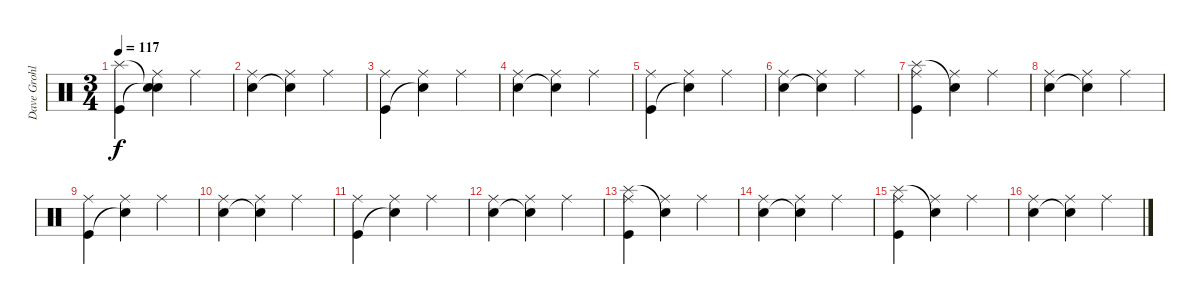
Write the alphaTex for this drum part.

\track ("Dave Grohl-Drums" "Dave Grohl") {instrument percussion}
\staff {score}
\articulation defaults
\ts (3 4)
\tempo 117
\clef neutral
\ks c
("Splash (hit)" "Kick (hit)").4{dy f} ("Snare (hit)"{t} "Snare (hit)"{t} "Ride (middle)").4 "Ride (middle)".4 |
("Electric Snare (hit)" "Ride (middle)").4 ("Snare (hit)"{t} "Ride (middle)").4 "Ride (middle)".4 |
("Kick (hit)" "Ride (middle)").4 ("Snare (hit)"{t} "Ride (middle)").4 "Ride (middle)".4 |
("Electric Snare (hit)" "Ride (middle)").4 ("Snare (hit)"{t} "Ride (middle)").4 "Ride (middle)".4 |
("Kick (hit)" "Ride (middle)").4 ("Snare (hit)"{t} "Ride (middle)").4 "Ride (middle)".4 |
("Electric Snare (hit)" "Ride (middle)").4 ("Snare (hit)"{t} "Ride (middle)").4 "Ride (middle)".4 |
("Splash (hit)" "Kick (hit)" "Ride (middle)").4 ("Snare (hit)"{t} "Ride (middle)").4 "Ride (middle)".4 |
("Electric Snare (hit)" "Ride (middle)").4 ("Snare (hit)"{t} "Ride (middle)").4 "Ride (middle)".4 |
("Kick (hit)" "Ride (middle)").4 ("Snare (hit)"{t} "Ride (middle)").4 "Ride (middle)".4 |
("Electric Snare (hit)" "Ride (middle)").4 ("Snare (hit)"{t} "Ride (middle)").4 "Ride (middle)".4 |
("Kick (hit)" "Ride (middle)").4 ("Snare (hit)"{t} "Ride (middle)").4 "Ride (middle)".4 |
("Electric Snare (hit)" "Ride (middle)").4 ("Snare (hit)"{t} "Ride (middle)").4 "Ride (middle)".4 |
("Splash (hit)" "Kick (hit)" "Ride (middle)").4 ("Snare (hit)"{t} "Ride (middle)").4 "Ride (middle)".4 |
("Electric Snare (hit)" "Ride (middle)").4 ("Snare (hit)"{t} "Ride (middle)").4 "Ride (middle)".4 |
("Splash (hit)" "Kick (hit)" "Ride (middle)").4 ("Snare (hit)"{t} "Ride (middle)").4 "Ride (middle)".4 |
("Electric Snare (hit)" "Ride (middle)").4 ("Snare (hit)"{t} "Ride (middle)").4 "Ride (middle)".4
